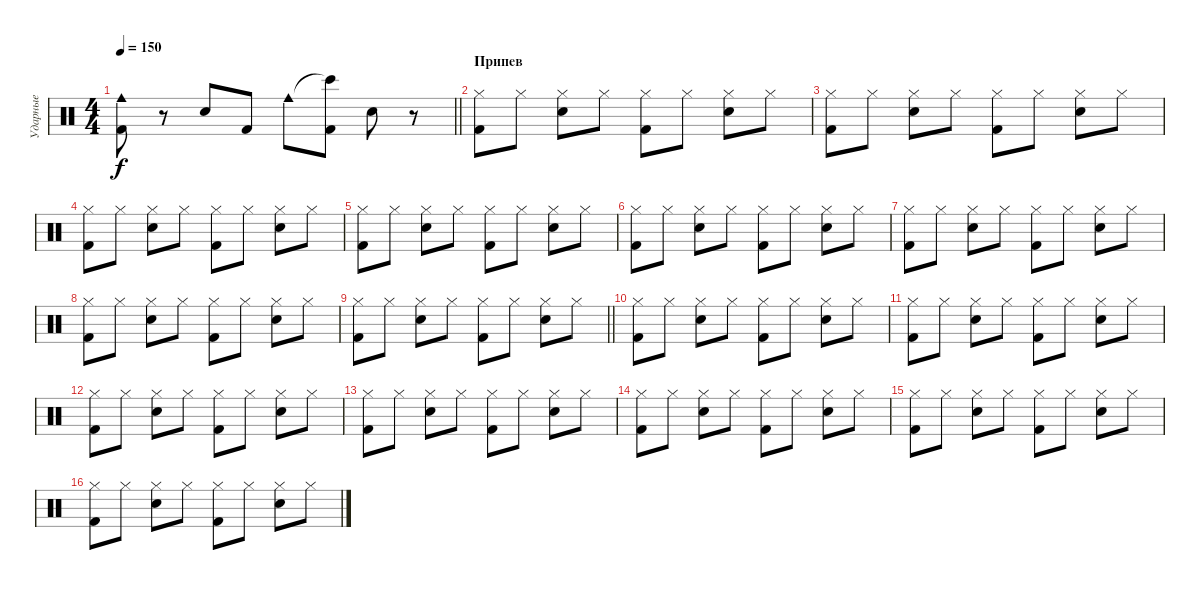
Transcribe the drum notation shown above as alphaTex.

\track ("Ударные" "Ударные") {instrument percussion}
\staff {score}
\articulation defaults
\ts (4 4)
\tempo 150
\clef neutral
\barLineRight lightlight
\ks c
("Cowbell medium (hit)" "Kick (hit) 2").8{dy f} r.8 "Snare (hit) 2".8 "Kick (hit) 2".8 "Cowbell medium (hit)".8 ("Bongo High (hit)"{t} "Kick (hit) 2").8 "Snare (hit) 2".8 r.8 |
\section ("" "Припев")
("Hi-Hat (closed)" "Kick (hit) 2").8 "Hi-Hat (closed)".8 ("Hi-Hat (closed)" "Snare (hit) 2").8 "Hi-Hat (closed)".8 ("Hi-Hat (closed)" "Kick (hit) 2").8 "Hi-Hat (closed)".8 ("Hi-Hat (closed)" "Snare (hit) 2").8 "Hi-Hat (closed)".8 |
("Hi-Hat (closed)" "Kick (hit) 2").8 "Hi-Hat (closed)".8 ("Hi-Hat (closed)" "Snare (hit) 2").8 "Hi-Hat (closed)".8 ("Hi-Hat (closed)" "Kick (hit) 2").8 "Hi-Hat (closed)".8 ("Hi-Hat (closed)" "Snare (hit) 2").8 "Hi-Hat (closed)".8 |
("Hi-Hat (closed)" "Kick (hit) 2").8 "Hi-Hat (closed)".8 ("Hi-Hat (closed)" "Snare (hit) 2").8 "Hi-Hat (closed)".8 ("Hi-Hat (closed)" "Kick (hit) 2").8 "Hi-Hat (closed)".8 ("Hi-Hat (closed)" "Snare (hit) 2").8 "Hi-Hat (closed)".8 |
("Hi-Hat (closed)" "Kick (hit) 2").8 "Hi-Hat (closed)".8 ("Hi-Hat (closed)" "Snare (hit) 2").8 "Hi-Hat (closed)".8 ("Hi-Hat (closed)" "Kick (hit) 2").8 "Hi-Hat (closed)".8 ("Hi-Hat (closed)" "Snare (hit) 2").8 "Hi-Hat (closed)".8 |
("Hi-Hat (closed)" "Kick (hit) 2").8 "Hi-Hat (closed)".8 ("Hi-Hat (closed)" "Snare (hit) 2").8 "Hi-Hat (closed)".8 ("Hi-Hat (closed)" "Kick (hit) 2").8 "Hi-Hat (closed)".8 ("Hi-Hat (closed)" "Snare (hit) 2").8 "Hi-Hat (closed)".8 |
("Hi-Hat (closed)" "Kick (hit) 2").8 "Hi-Hat (closed)".8 ("Hi-Hat (closed)" "Snare (hit) 2").8 "Hi-Hat (closed)".8 ("Hi-Hat (closed)" "Kick (hit) 2").8 "Hi-Hat (closed)".8 ("Hi-Hat (closed)" "Snare (hit) 2").8 "Hi-Hat (closed)".8 |
("Hi-Hat (closed)" "Kick (hit) 2").8 "Hi-Hat (closed)".8 ("Hi-Hat (closed)" "Snare (hit) 2").8 "Hi-Hat (closed)".8 ("Hi-Hat (closed)" "Kick (hit) 2").8 "Hi-Hat (closed)".8 ("Hi-Hat (closed)" "Snare (hit) 2").8 "Hi-Hat (closed)".8 |
\barLineRight lightlight
("Hi-Hat (closed)" "Kick (hit) 2").8 "Hi-Hat (closed)".8 ("Hi-Hat (closed)" "Snare (hit) 2").8 "Hi-Hat (closed)".8 ("Hi-Hat (closed)" "Kick (hit) 2").8 "Hi-Hat (closed)".8 ("Hi-Hat (closed)" "Snare (hit) 2").8 "Hi-Hat (closed)".8 |
("Hi-Hat (closed)" "Kick (hit) 2").8 "Hi-Hat (closed)".8 ("Hi-Hat (closed)" "Snare (hit) 2").8 "Hi-Hat (closed)".8 ("Hi-Hat (closed)" "Kick (hit) 2").8 "Hi-Hat (closed)".8 ("Hi-Hat (closed)" "Snare (hit) 2").8 "Hi-Hat (closed)".8 |
("Hi-Hat (closed)" "Kick (hit) 2").8 "Hi-Hat (closed)".8 ("Hi-Hat (closed)" "Snare (hit) 2").8 "Hi-Hat (closed)".8 ("Hi-Hat (closed)" "Kick (hit) 2").8 "Hi-Hat (closed)".8 ("Hi-Hat (closed)" "Snare (hit) 2").8 "Hi-Hat (closed)".8 |
("Hi-Hat (closed)" "Kick (hit) 2").8 "Hi-Hat (closed)".8 ("Hi-Hat (closed)" "Snare (hit) 2").8 "Hi-Hat (closed)".8 ("Hi-Hat (closed)" "Kick (hit) 2").8 "Hi-Hat (closed)".8 ("Hi-Hat (closed)" "Snare (hit) 2").8 "Hi-Hat (closed)".8 |
("Hi-Hat (closed)" "Kick (hit) 2").8 "Hi-Hat (closed)".8 ("Hi-Hat (closed)" "Snare (hit) 2").8 "Hi-Hat (closed)".8 ("Hi-Hat (closed)" "Kick (hit) 2").8 "Hi-Hat (closed)".8 ("Hi-Hat (closed)" "Snare (hit) 2").8 "Hi-Hat (closed)".8 |
("Hi-Hat (closed)" "Kick (hit) 2").8 "Hi-Hat (closed)".8 ("Hi-Hat (closed)" "Snare (hit) 2").8 "Hi-Hat (closed)".8 ("Hi-Hat (closed)" "Kick (hit) 2").8 "Hi-Hat (closed)".8 ("Hi-Hat (closed)" "Snare (hit) 2").8 "Hi-Hat (closed)".8 |
("Hi-Hat (closed)" "Kick (hit) 2").8 "Hi-Hat (closed)".8 ("Hi-Hat (closed)" "Snare (hit) 2").8 "Hi-Hat (closed)".8 ("Hi-Hat (closed)" "Kick (hit) 2").8 "Hi-Hat (closed)".8 ("Hi-Hat (closed)" "Snare (hit) 2").8 "Hi-Hat (closed)".8 |
("Hi-Hat (closed)" "Kick (hit) 2").8 "Hi-Hat (closed)".8 ("Hi-Hat (closed)" "Snare (hit) 2").8 "Hi-Hat (closed)".8 ("Hi-Hat (closed)" "Kick (hit) 2").8 "Hi-Hat (closed)".8 ("Hi-Hat (closed)" "Snare (hit) 2").8 "Hi-Hat (closed)".8
